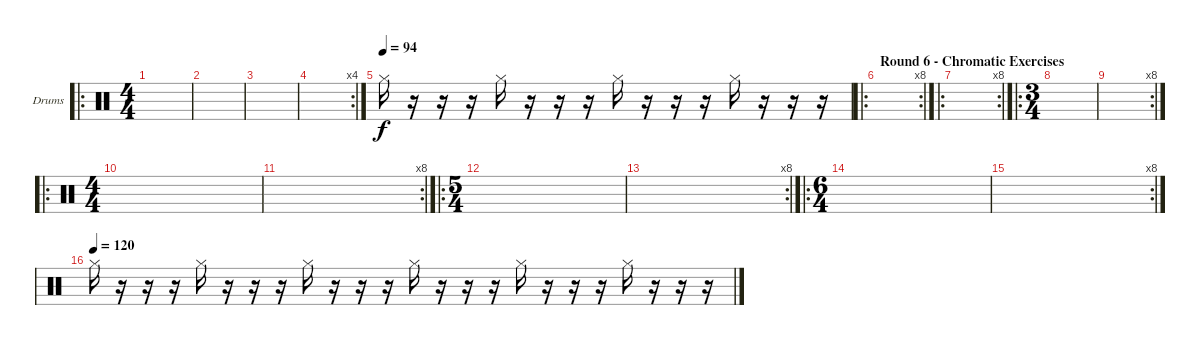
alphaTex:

\defaultSystemsLayout 4
\bracketExtendMode groupsimilarinstruments
\firstSystemTrackNameOrientation horizontal
\otherSystemsTrackNameOrientation horizontal
\track ("Drumkit" "Drums") {instrument percussion}
\staff {score}
\articulation defaults
\ro
\ts (4 4)
\tempo (105 hide)
\clef neutral
\scale
0.5
\ks c
|
\scale
0.25 |
\scale
0.25 |
\rc 4
\scale
0.323077 |
\tempo 94
\scale
0.292308 "Hi-Hat (closed)".16 r.16 r.16 r.16 "Hi-Hat (closed)".16 r.16 r.16 r.16 "Hi-Hat (closed)".16 r.16 r.16 r.16 "Hi-Hat (closed)".16 r.16 r.16 r.16 |
\ro
\rc 8
\section ("" "Round 6 - Chromatic Exercises")
\tempo (94 hide)
\scale
0.384615 |
\ro
\rc 8
\scale
0.297619 |
\ro
\ts (3 4)
\scale
0.452381 |
\rc 8
\scale
0.25 |
\ro
\ts (4 4)
\scale
0.391753 |
\rc 8
\scale
0.216495 |
\ro
\ts (5 4)
\scale
0.391753 |
\rc 8
\scale
0.2625 |
\ro
\ts (6 4)
\scale
0.475 |
\rc 8
\scale
0.2625 |
\tempo (120)
"Hi-Hat (closed)".16{beam split} r.16{beam split} r.16{beam split} r.16{beam split} "Hi-Hat (closed)".16{beam split} r.16{beam split} r.16{beam split} r.16{beam split} "Hi-Hat (closed)".16{beam split} r.16{beam split} r.16{beam split} r.16{beam split} "Hi-Hat (closed)".16{beam split} r.16{beam split} r.16{beam split} r.16{beam split} "Hi-Hat (closed)".16{beam split} r.16{beam split} r.16{beam split} r.16{beam split} "Hi-Hat (closed)".16{beam split} r.16{beam split} r.16{beam split} r.16{beam split}
